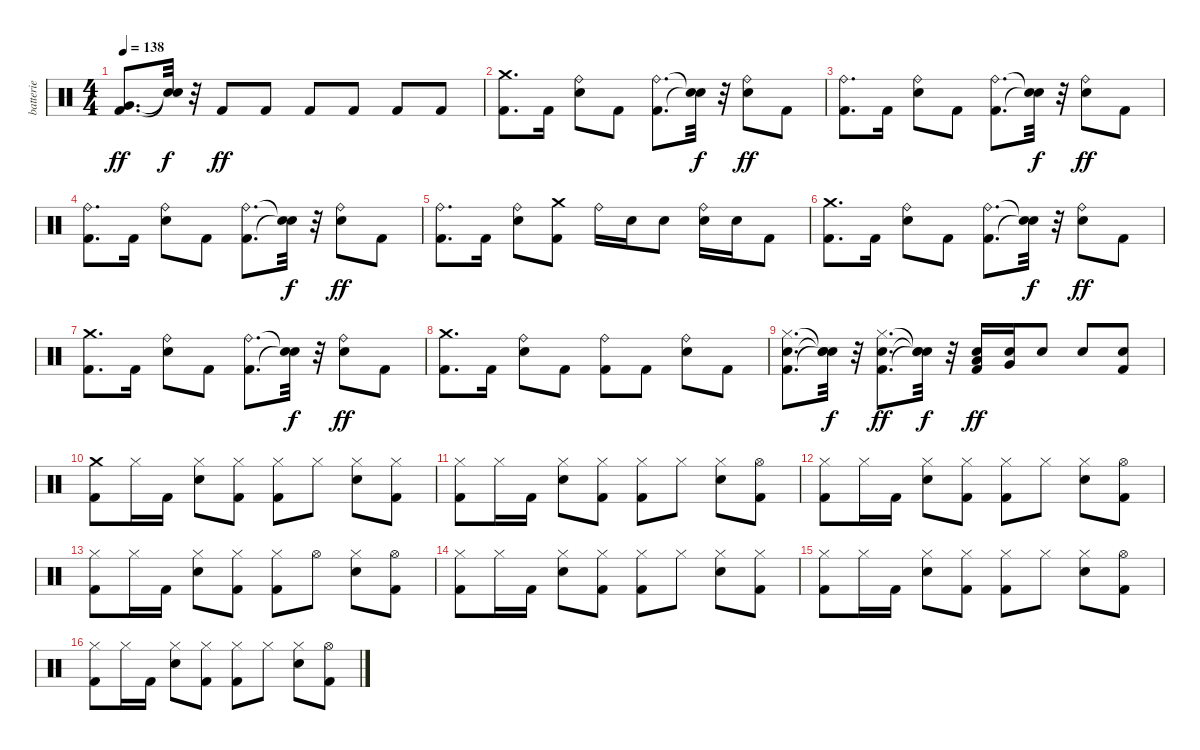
\track ("batterie" "batterie") {instrument percussion}
\staff {score}
\articulation defaults
\ts (4 4)
\tempo 138
\clef neutral
\ks c
("Kick (hit) 2" "Very Low Tom (hit)").8{d dy ff} ("Snare (hit)"{t} "Snare (hit)"{t}).32{dy f} r.32 "Kick (hit) 2".8{dy ff} "Kick (hit) 2".8 "Kick (hit) 2".8 "Kick (hit) 2".8 "Kick (hit) 2".8 "Kick (hit) 2".8 |
("Kick (hit) 2" "Crash medium (hit)").8{d} "Kick (hit) 2".16 ("Electric Snare (hit)" "Ride (bell)").8 "Kick (hit) 2".8 ("Kick (hit) 2" "Ride (bell)").8{d} ("Snare (hit)"{t} "Snare (hit)"{t}).32{dy f} r.32 ("Electric Snare (hit)" "Ride (bell)").8{dy ff} "Kick (hit) 2".8 |
("Kick (hit) 2" "Ride (bell)").8{d} "Kick (hit) 2".16 ("Electric Snare (hit)" "Ride (bell)").8 "Kick (hit) 2".8 ("Kick (hit) 2" "Ride (bell)").8{d} ("Snare (hit)"{t} "Snare (hit)"{t}).32{dy f} r.32 ("Electric Snare (hit)" "Ride (bell)").8{dy ff} "Kick (hit) 2".8 |
("Kick (hit) 2" "Ride (bell)").8{d} "Kick (hit) 2".16 ("Electric Snare (hit)" "Ride (bell)").8 "Kick (hit) 2".8 ("Kick (hit) 2" "Ride (bell)").8{d} ("Snare (hit)"{t} "Snare (hit)"{t}).32{dy f} r.32 ("Electric Snare (hit)" "Ride (bell)").8{dy ff} "Kick (hit) 2".8 |
("Kick (hit) 2" "Ride (bell)").8{d} "Kick (hit) 2".16 ("Electric Snare (hit)" "Ride (bell)").8 ("Kick (hit) 2" "Crash medium (hit)").8 "Ride (bell)".16 "Electric Snare (hit)".16 "Electric Snare (hit)".8 ("Electric Snare (hit)" "Ride (bell)").16 "Electric Snare (hit)".16 "Kick (hit) 2".8 |
("Kick (hit) 2" "Crash medium (hit)").8{d} "Kick (hit) 2".16 ("Electric Snare (hit)" "Ride (bell)").8 "Kick (hit) 2".8 ("Kick (hit) 2" "Ride (bell)").8{d} ("Snare (hit)"{t} "Snare (hit)"{t}).32{dy f} r.32 ("Electric Snare (hit)" "Ride (bell)").8{dy ff} "Kick (hit) 2".8 |
("Kick (hit) 2" "Crash medium (hit)").8{d} "Kick (hit) 2".16 ("Electric Snare (hit)" "Ride (bell)").8 "Kick (hit) 2".8 ("Kick (hit) 2" "Ride (bell)").8{d} ("Snare (hit)"{t} "Snare (hit)"{t}).32{dy f} r.32 ("Electric Snare (hit)" "Ride (bell)").8{dy ff} "Kick (hit) 2".8 |
("Kick (hit) 2" "Crash medium (hit)").8{d} "Kick (hit) 2".16 ("Electric Snare (hit)" "Ride (bell)").8 "Kick (hit) 2".8 ("Kick (hit) 2" "Ride (bell)").8 "Kick (hit) 2".8 ("Electric Snare (hit)" "Ride (bell)").8 "Kick (hit) 2".8 |
("Kick (hit) 2" "Electric Snare (hit)" "Hi-Hat (closed)").8{d} ("Snare (hit)"{t} "Snare (hit)"{t} "Snare (hit)"{t}).32{dy f} r.32 ("Kick (hit) 2" "Electric Snare (hit)" "Hi-Hat (closed)").8{d dy ff} ("Snare (hit)"{t} "Snare (hit)"{t} "Snare (hit)"{t}).32{dy f} r.32 ("Kick (hit) 2" "Electric Snare (hit)" "Low Tom (hit)").16{dy ff} ("Electric Snare (hit)" "Very Low Tom (hit)").16 "Electric Snare (hit)".8 "Electric Snare (hit)".8 ("Kick (hit) 2" "Electric Snare (hit)").8 |
("Kick (hit) 2" "Crash medium (hit)").8 "Hi-Hat (closed)".16 "Kick (hit) 2".16 ("Electric Snare (hit)" "Hi-Hat (closed)").8 ("Kick (hit) 2" "Hi-Hat (closed)").8 ("Kick (hit) 2" "Hi-Hat (closed)").8 "Hi-Hat (closed)".8 ("Electric Snare (hit)" "Hi-Hat (closed)").8 ("Kick (hit) 2" "Hi-Hat (closed)").8 |
("Kick (hit) 2" "Hi-Hat (closed)").8 "Hi-Hat (closed)".16 "Kick (hit) 2".16 ("Electric Snare (hit)" "Hi-Hat (closed)").8 ("Kick (hit) 2" "Hi-Hat (closed)").8 ("Kick (hit) 2" "Hi-Hat (closed)").8 "Hi-Hat (closed)".8 ("Electric Snare (hit)" "Hi-Hat (closed)").8 ("Kick (hit) 2" "Hi-Hat (open)").8 |
("Kick (hit) 2" "Hi-Hat (closed)").8 "Hi-Hat (closed)".16 "Kick (hit) 2".16 ("Electric Snare (hit)" "Hi-Hat (closed)").8 ("Kick (hit) 2" "Hi-Hat (closed)").8 ("Kick (hit) 2" "Hi-Hat (closed)").8 "Hi-Hat (closed)".8 ("Electric Snare (hit)" "Hi-Hat (closed)").8 ("Kick (hit) 2" "Hi-Hat (open)").8 |
("Kick (hit) 2" "Hi-Hat (closed)").8 "Hi-Hat (closed)".16 "Kick (hit) 2".16 ("Electric Snare (hit)" "Hi-Hat (closed)").8 ("Kick (hit) 2" "Hi-Hat (closed)").8 ("Kick (hit) 2" "Hi-Hat (closed)").8 "Hi-Hat (open)".8 ("Electric Snare (hit)" "Hi-Hat (closed)").8 ("Kick (hit) 2" "Hi-Hat (open)").8 |
("Kick (hit) 2" "Hi-Hat (closed)").8 "Hi-Hat (closed)".16 "Kick (hit) 2".16 ("Electric Snare (hit)" "Hi-Hat (closed)").8 ("Kick (hit) 2" "Hi-Hat (closed)").8 ("Kick (hit) 2" "Hi-Hat (closed)").8 "Hi-Hat (closed)".8 ("Electric Snare (hit)" "Hi-Hat (closed)").8 ("Kick (hit) 2" "Hi-Hat (closed)").8 |
("Kick (hit) 2" "Hi-Hat (closed)").8 "Hi-Hat (closed)".16 "Kick (hit) 2".16 ("Electric Snare (hit)" "Hi-Hat (closed)").8 ("Kick (hit) 2" "Hi-Hat (closed)").8 ("Kick (hit) 2" "Hi-Hat (closed)").8 "Hi-Hat (closed)".8 ("Electric Snare (hit)" "Hi-Hat (closed)").8 ("Kick (hit) 2" "Hi-Hat (open)").8 |
("Kick (hit) 2" "Hi-Hat (closed)").8 "Hi-Hat (closed)".16 "Kick (hit) 2".16 ("Electric Snare (hit)" "Hi-Hat (closed)").8 ("Kick (hit) 2" "Hi-Hat (closed)").8 ("Kick (hit) 2" "Hi-Hat (closed)").8 "Hi-Hat (closed)".8 ("Electric Snare (hit)" "Hi-Hat (closed)").8 ("Kick (hit) 2" "Hi-Hat (open)").8
